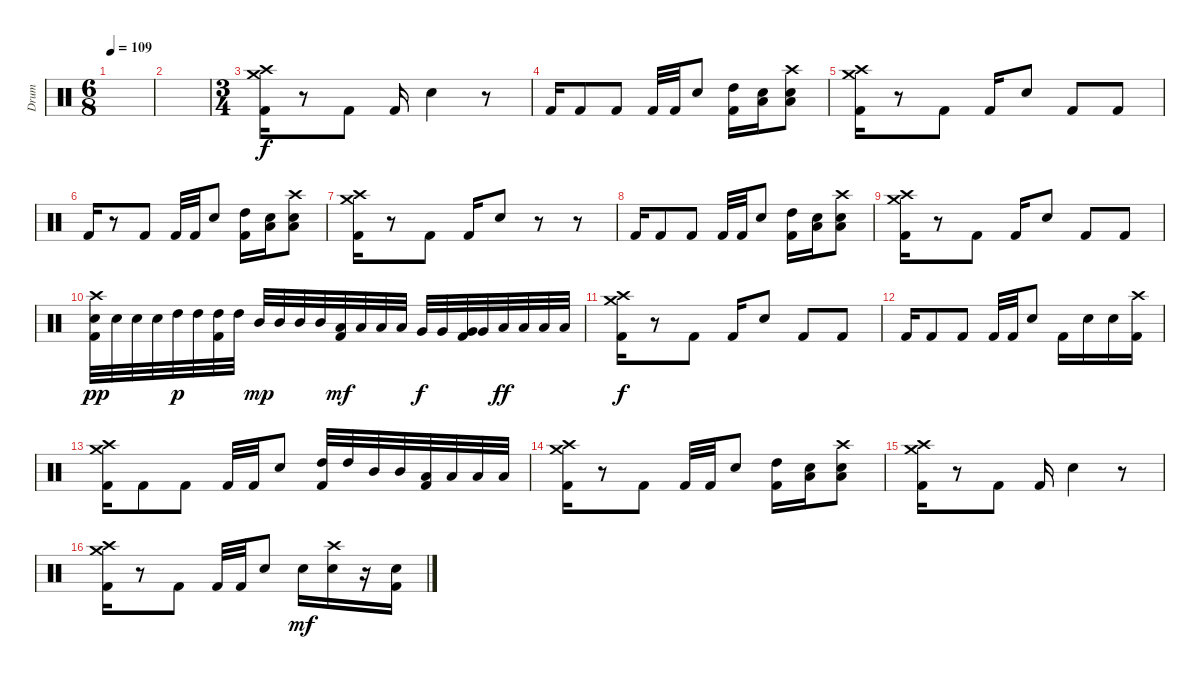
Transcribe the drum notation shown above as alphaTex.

\track ("Drum" "Drum") {instrument percussion}
\staff {score}
\articulation defaults
\ts (6 8)
\tempo 109
\clef neutral
\ks c
|
|
\ts (3 4)
("Crash high (hit)" "Crash medium (hit)" "Kick (hit) 2").16 r.8 "Kick (hit) 2".8 "Kick (hit) 2".16 "Snare (hit) 2".4 r.8 |
"Kick (hit) 2".16 "Kick (hit) 2".8 "Kick (hit) 2".8 "Kick (hit) 2".32 "Kick (hit) 2".32 "Snare (hit) 2".8 ("High Tom (hit)" "Kick (hit) 2").16 ("Low Tom (hit)" "Snare (hit) 2").16 ("Crash high (hit)" "Low Floor Tom (hit)" "Snare (hit) 2").8 |
("Crash high (hit)" "Crash medium (hit)" "Kick (hit) 2").16 r.8 "Kick (hit) 2".8 "Kick (hit) 2".16 "Snare (hit) 2".8 "Kick (hit) 2".8 "Kick (hit) 2".8 |
"Kick (hit) 2".16 r.8 "Kick (hit) 2".8 "Kick (hit) 2".32 "Kick (hit) 2".32 "Snare (hit) 2".8 ("High Tom (hit)" "Kick (hit) 2").16 ("Low Tom (hit)" "Snare (hit) 2").16 ("Crash high (hit)" "Low Floor Tom (hit)" "Snare (hit) 2").8 |
("Crash high (hit)" "Crash medium (hit)" "Kick (hit) 2").16 r.8 "Kick (hit) 2".8 "Kick (hit) 2".16 "Snare (hit) 2".8 r.8 r.8 |
"Kick (hit) 2".16 "Kick (hit) 2".8 "Kick (hit) 2".8 "Kick (hit) 2".32 "Kick (hit) 2".32 "Snare (hit) 2".8 ("High Tom (hit)" "Kick (hit) 2").16 ("Low Tom (hit)" "Snare (hit) 2").16 ("Crash high (hit)" "Low Floor Tom (hit)" "Snare (hit) 2").8 |
("Crash high (hit)" "Crash medium (hit)" "Kick (hit) 2").16 r.8 "Kick (hit) 2".8 "Kick (hit) 2".16 "Snare (hit) 2".8 "Kick (hit) 2".8 "Kick (hit) 2".8 |
("Crash high (hit)" "Snare (hit) 2" "Kick (hit) 2").32{dy pp} "Snare (hit) 2".32 "Snare (hit) 2".32 "Snare (hit) 2".32 "High Tom (hit)".32{dy p} "High Tom (hit)".32 ("High Tom (hit)" "Kick (hit) 2").32 "High Tom (hit)".32 "Mid Tom (hit)".32{dy mp} "Mid Tom (hit)".32 "Mid Tom (hit)".32 "Mid Tom (hit)".32 ("Low Tom (hit)" "Kick (hit) 2").32{dy mf} "Low Tom (hit)".32 "Low Tom (hit)".32 "Low Tom (hit)".32 "Very Low Tom (hit)".32{dy f} "Very Low Tom (hit)".32 ("Very Low Tom (hit)" "Kick (hit) 2").32 "Very Low Tom (hit)".32 "Low Floor Tom (hit)".32{dy ff} "Low Floor Tom (hit)".32 "Low Floor Tom (hit)".32 "Low Floor Tom (hit)".32 |
("Crash high (hit)" "Crash medium (hit)" "Kick (hit) 2").16{dy f} r.8 "Kick (hit) 2".8 "Kick (hit) 2".16 "Snare (hit) 2".8 "Kick (hit) 2".8 "Kick (hit) 2".8 |
"Kick (hit) 2".16 "Kick (hit) 2".8 "Kick (hit) 2".8 "Kick (hit) 2".32 "Kick (hit) 2".32 "Snare (hit) 2".8 "Kick (hit) 2".16 "Snare (hit) 2".16 "Snare (hit) 2".16 ("Crash high (hit)" "Kick (hit) 2").16 |
("Crash high (hit)" "Crash medium (hit)" "Kick (hit) 2").16 "Kick (hit) 2".8 "Kick (hit) 2".8 "Kick (hit) 2".32 "Kick (hit) 2".32 "Snare (hit) 2".8 ("High Tom (hit)" "Kick (hit) 2").32 "High Tom (hit)".32 "Mid Tom (hit)".32 "Mid Tom (hit)".32 ("Low Tom (hit)" "Kick (hit) 2").32 "Low Tom (hit)".32 "Low Floor Tom (hit)".32 "Low Floor Tom (hit)".32 |
("Crash high (hit)" "Crash medium (hit)" "Kick (hit) 2").16 r.8 "Kick (hit) 2".8 "Kick (hit) 2".32 "Kick (hit) 2".32 "Snare (hit) 2".8 ("High Tom (hit)" "Kick (hit) 2").16 ("Low Tom (hit)" "Snare (hit) 2").16 ("Crash high (hit)" "Low Floor Tom (hit)" "Snare (hit) 2").8 |
("Crash high (hit)" "Crash medium (hit)" "Kick (hit) 2").16 r.8 "Kick (hit) 2".8 "Kick (hit) 2".16 "Snare (hit) 2".4 r.8 |
("Crash high (hit)" "Crash medium (hit)" "Kick (hit) 2").16 r.8 "Kick (hit) 2".8 "Kick (hit) 2".32 "Kick (hit) 2".32 "Snare (hit) 2".8 "Snare (hit) 2".16{dy mf} ("Crash high (hit)" "Snare (hit) 2").16 r.16 ("Snare (hit) 2" "Kick (hit) 2").16
